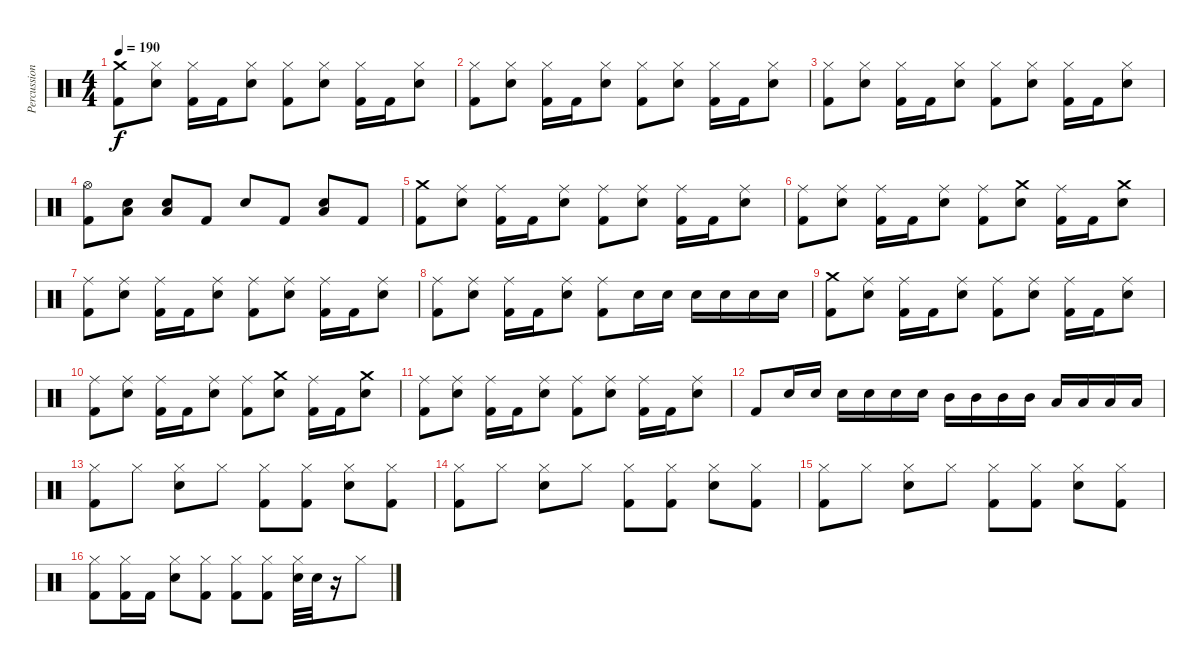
\track ("Percussion" "Percussion") {instrument percussion}
\staff {score}
\articulation defaults
\ts (4 4)
\tempo 190
\clef neutral
\ks c
("Crash medium (hit)" "Kick (hit) 2").8{dy f} ("Hi-Hat (closed)" "Electric Snare (hit)").8 ("Hi-Hat (closed)" "Kick (hit) 2").16 "Kick (hit) 2".16 ("Hi-Hat (closed)" "Electric Snare (hit)").8 ("Hi-Hat (closed)" "Kick (hit) 2").8 ("Hi-Hat (closed)" "Electric Snare (hit)").8 ("Hi-Hat (closed)" "Kick (hit) 2").16 "Kick (hit) 2".16 ("Hi-Hat (closed)" "Electric Snare (hit)").8 |
("Hi-Hat (closed)" "Kick (hit) 2").8 ("Hi-Hat (closed)" "Electric Snare (hit)").8 ("Hi-Hat (closed)" "Kick (hit) 2").16 "Kick (hit) 2".16 ("Hi-Hat (closed)" "Electric Snare (hit)").8 ("Hi-Hat (closed)" "Kick (hit) 2").8 ("Hi-Hat (closed)" "Electric Snare (hit)").8 ("Hi-Hat (closed)" "Kick (hit) 2").16 "Kick (hit) 2".16 ("Hi-Hat (closed)" "Electric Snare (hit)").8 |
("Hi-Hat (closed)" "Kick (hit) 2").8 ("Hi-Hat (closed)" "Electric Snare (hit)").8 ("Hi-Hat (closed)" "Kick (hit) 2").16 "Kick (hit) 2".16 ("Hi-Hat (closed)" "Electric Snare (hit)").8 ("Hi-Hat (closed)" "Kick (hit) 2").8 ("Hi-Hat (closed)" "Electric Snare (hit)").8 ("Hi-Hat (closed)" "Kick (hit) 2").16 "Kick (hit) 2".16 ("Hi-Hat (closed)" "Electric Snare (hit)").8 |
("Hi-Hat (open)" "Kick (hit) 2").8 ("Electric Snare (hit)" "Low Tom (hit)").8 ("Electric Snare (hit)" "Low Tom (hit)").8 "Kick (hit) 2".8 "Electric Snare (hit)".8 "Kick (hit) 2".8 ("Low Tom (hit)" "Electric Snare (hit)").8 "Kick (hit) 2".8 |
("Crash medium (hit)" "Kick (hit) 2").8 ("Ride (middle)" "Electric Snare (hit)").8 ("Ride (middle)" "Kick (hit) 2").16 "Kick (hit) 2".16 ("Ride (middle)" "Electric Snare (hit)").8 ("Ride (middle)" "Kick (hit) 2").8 ("Ride (middle)" "Electric Snare (hit)").8 ("Ride (middle)" "Kick (hit) 2").16 "Kick (hit) 2".16 ("Ride (middle)" "Electric Snare (hit)").8 |
("Ride (middle)" "Kick (hit) 2").8 ("Ride (middle)" "Electric Snare (hit)").8 ("Ride (middle)" "Kick (hit) 2").16 "Kick (hit) 2".16 ("Ride (middle)" "Electric Snare (hit)").8 ("Ride (middle)" "Kick (hit) 2").8 ("Crash medium (hit)" "Electric Snare (hit)").8 ("Ride (middle)" "Kick (hit) 2").16 "Kick (hit) 2".16 ("Crash medium (hit)" "Electric Snare (hit)").8 |
("Ride (middle)" "Kick (hit) 2").8 ("Ride (middle)" "Electric Snare (hit)").8 ("Ride (middle)" "Kick (hit) 2").16 "Kick (hit) 2".16 ("Ride (middle)" "Electric Snare (hit)").8 ("Ride (middle)" "Kick (hit) 2").8 ("Ride (middle)" "Electric Snare (hit)").8 ("Ride (middle)" "Kick (hit) 2").16 "Kick (hit) 2".16 ("Ride (middle)" "Electric Snare (hit)").8 |
("Ride (middle)" "Kick (hit) 2").8 ("Ride (middle)" "Electric Snare (hit)").8 ("Ride (middle)" "Kick (hit) 2").16 "Kick (hit) 2".16 ("Ride (middle)" "Electric Snare (hit)").8 ("Ride (middle)" "Kick (hit) 2").8 "Electric Snare (hit)".16 "Electric Snare (hit)".16 "Electric Snare (hit)".16 "Electric Snare (hit)".16 "Electric Snare (hit)".16 "Electric Snare (hit)".16 |
("Crash medium (hit)" "Kick (hit) 2").8 ("Ride (middle)" "Electric Snare (hit)").8 ("Ride (middle)" "Kick (hit) 2").16 "Kick (hit) 2".16 ("Ride (middle)" "Electric Snare (hit)").8 ("Ride (middle)" "Kick (hit) 2").8 ("Ride (middle)" "Electric Snare (hit)").8 ("Ride (middle)" "Kick (hit) 2").16 "Kick (hit) 2".16 ("Ride (middle)" "Electric Snare (hit)").8 |
("Ride (middle)" "Kick (hit) 2").8 ("Ride (middle)" "Electric Snare (hit)").8 ("Ride (middle)" "Kick (hit) 2").16 "Kick (hit) 2".16 ("Ride (middle)" "Electric Snare (hit)").8 ("Ride (middle)" "Kick (hit) 2").8 ("Crash medium (hit)" "Electric Snare (hit)").8 ("Ride (middle)" "Kick (hit) 2").16 "Kick (hit) 2".16 ("Crash medium (hit)" "Electric Snare (hit)").8 |
("Ride (middle)" "Kick (hit) 2").8 ("Ride (middle)" "Electric Snare (hit)").8 ("Ride (middle)" "Kick (hit) 2").16 "Kick (hit) 2".16 ("Ride (middle)" "Electric Snare (hit)").8 ("Ride (middle)" "Kick (hit) 2").8 ("Ride (middle)" "Electric Snare (hit)").8 ("Ride (middle)" "Kick (hit) 2").16 "Kick (hit) 2".16 ("Ride (middle)" "Electric Snare (hit)").8 |
"Kick (hit) 2".8 "Electric Snare (hit)".16 "Electric Snare (hit)".16 "Electric Snare (hit)".16 "Electric Snare (hit)".16 "Electric Snare (hit)".16 "Electric Snare (hit)".16 "Mid Tom (hit)".16 "Mid Tom (hit)".16 "Mid Tom (hit)".16 "Mid Tom (hit)".16 "Low Tom (hit)".16 "Low Tom (hit)".16 "Low Tom (hit)".16 "Low Tom (hit)".16 |
("Hi-Hat (closed)" "Kick (hit) 2").8 "Hi-Hat (closed)".8 ("Hi-Hat (closed)" "Electric Snare (hit)").8 "Hi-Hat (closed)".8 ("Hi-Hat (closed)" "Kick (hit) 2").8 ("Hi-Hat (closed)" "Kick (hit) 2").8 ("Hi-Hat (closed)" "Electric Snare (hit)").8 ("Hi-Hat (closed)" "Kick (hit) 2").8 |
("Hi-Hat (closed)" "Kick (hit) 2").8 "Hi-Hat (closed)".8 ("Hi-Hat (closed)" "Electric Snare (hit)").8 "Hi-Hat (closed)".8 ("Hi-Hat (closed)" "Kick (hit) 2").8 ("Hi-Hat (closed)" "Kick (hit) 2").8 ("Hi-Hat (closed)" "Electric Snare (hit)").8 ("Hi-Hat (closed)" "Kick (hit) 2").8 |
("Hi-Hat (closed)" "Kick (hit) 2").8 "Hi-Hat (closed)".8 ("Hi-Hat (closed)" "Electric Snare (hit)").8 "Hi-Hat (closed)".8 ("Hi-Hat (closed)" "Kick (hit) 2").8 ("Hi-Hat (closed)" "Kick (hit) 2").8 ("Hi-Hat (closed)" "Electric Snare (hit)").8 ("Hi-Hat (closed)" "Kick (hit) 2").8 |
("Hi-Hat (closed)" "Kick (hit) 2").8 ("Hi-Hat (closed)" "Kick (hit) 2").16 "Kick (hit) 2".16 ("Hi-Hat (closed)" "Electric Snare (hit)").8 ("Hi-Hat (closed)" "Kick (hit) 2").8 ("Hi-Hat (closed)" "Kick (hit) 2").8 ("Hi-Hat (closed)" "Kick (hit) 2").8 ("Hi-Hat (closed)" "Electric Snare (hit)").32 "Electric Snare (hit)".32 r.16 "Hi-Hat (closed)".8
